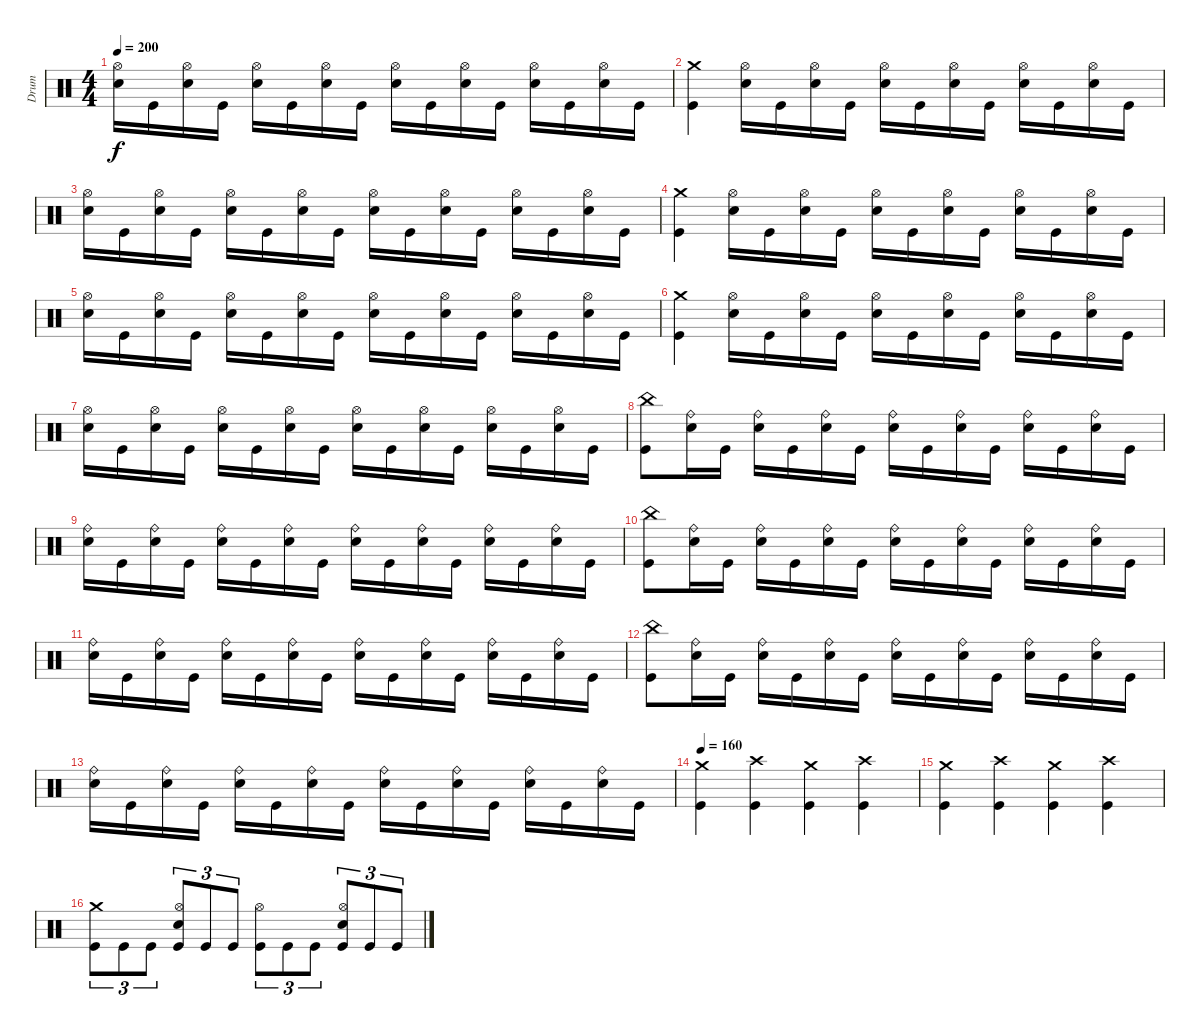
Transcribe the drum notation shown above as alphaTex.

\track ("Drum" "Drum") {instrument percussion}
\staff {score}
\articulation defaults
\ts (4 4)
\tempo 200
\clef neutral
\ks c
("Electric Snare (hit)" "Hi-Hat (open)").16{dy f} "Kick (hit)".16 ("Electric Snare (hit)" "Hi-Hat (open)").16 "Kick (hit)".16 ("Electric Snare (hit)" "Hi-Hat (open)").16 "Kick (hit)".16 ("Electric Snare (hit)" "Hi-Hat (open)").16 "Kick (hit)".16 ("Electric Snare (hit)" "Hi-Hat (open)").16 "Kick (hit)".16 ("Electric Snare (hit)" "Hi-Hat (open)").16 "Kick (hit)".16 ("Electric Snare (hit)" "Hi-Hat (open)").16 "Kick (hit)".16 ("Electric Snare (hit)" "Hi-Hat (open)").16 "Kick (hit)".16 |
("Kick (hit)" "Crash medium (hit)").4 ("Electric Snare (hit)" "Hi-Hat (open)").16 "Kick (hit)".16 ("Electric Snare (hit)" "Hi-Hat (open)").16 "Kick (hit)".16 ("Electric Snare (hit)" "Hi-Hat (open)").16 "Kick (hit)".16 ("Electric Snare (hit)" "Hi-Hat (open)").16 "Kick (hit)".16 ("Electric Snare (hit)" "Hi-Hat (open)").16 "Kick (hit)".16 ("Electric Snare (hit)" "Hi-Hat (open)").16 "Kick (hit)".16 |
("Electric Snare (hit)" "Hi-Hat (open)").16 "Kick (hit)".16 ("Electric Snare (hit)" "Hi-Hat (open)").16 "Kick (hit)".16 ("Electric Snare (hit)" "Hi-Hat (open)").16 "Kick (hit)".16 ("Electric Snare (hit)" "Hi-Hat (open)").16 "Kick (hit)".16 ("Electric Snare (hit)" "Hi-Hat (open)").16 "Kick (hit)".16 ("Electric Snare (hit)" "Hi-Hat (open)").16 "Kick (hit)".16 ("Electric Snare (hit)" "Hi-Hat (open)").16 "Kick (hit)".16 ("Electric Snare (hit)" "Hi-Hat (open)").16 "Kick (hit)".16 |
("Kick (hit)" "Crash medium (hit)").4 ("Electric Snare (hit)" "Hi-Hat (open)").16 "Kick (hit)".16 ("Electric Snare (hit)" "Hi-Hat (open)").16 "Kick (hit)".16 ("Electric Snare (hit)" "Hi-Hat (open)").16 "Kick (hit)".16 ("Electric Snare (hit)" "Hi-Hat (open)").16 "Kick (hit)".16 ("Electric Snare (hit)" "Hi-Hat (open)").16 "Kick (hit)".16 ("Electric Snare (hit)" "Hi-Hat (open)").16 "Kick (hit)".16 |
("Electric Snare (hit)" "Hi-Hat (open)").16 "Kick (hit)".16 ("Electric Snare (hit)" "Hi-Hat (open)").16 "Kick (hit)".16 ("Electric Snare (hit)" "Hi-Hat (open)").16 "Kick (hit)".16 ("Electric Snare (hit)" "Hi-Hat (open)").16 "Kick (hit)".16 ("Electric Snare (hit)" "Hi-Hat (open)").16 "Kick (hit)".16 ("Electric Snare (hit)" "Hi-Hat (open)").16 "Kick (hit)".16 ("Electric Snare (hit)" "Hi-Hat (open)").16 "Kick (hit)".16 ("Electric Snare (hit)" "Hi-Hat (open)").16 "Kick (hit)".16 |
("Kick (hit)" "Crash medium (hit)").4 ("Electric Snare (hit)" "Hi-Hat (open)").16 "Kick (hit)".16 ("Electric Snare (hit)" "Hi-Hat (open)").16 "Kick (hit)".16 ("Electric Snare (hit)" "Hi-Hat (open)").16 "Kick (hit)".16 ("Electric Snare (hit)" "Hi-Hat (open)").16 "Kick (hit)".16 ("Electric Snare (hit)" "Hi-Hat (open)").16 "Kick (hit)".16 ("Electric Snare (hit)" "Hi-Hat (open)").16 "Kick (hit)".16 |
("Electric Snare (hit)" "Hi-Hat (open)").16 "Kick (hit)".16 ("Electric Snare (hit)" "Hi-Hat (open)").16 "Kick (hit)".16 ("Electric Snare (hit)" "Hi-Hat (open)").16 "Kick (hit)".16 ("Electric Snare (hit)" "Hi-Hat (open)").16 "Kick (hit)".16 ("Electric Snare (hit)" "Hi-Hat (open)").16 "Kick (hit)".16 ("Electric Snare (hit)" "Hi-Hat (open)").16 "Kick (hit)".16 ("Electric Snare (hit)" "Hi-Hat (open)").16 "Kick (hit)".16 ("Electric Snare (hit)" "Hi-Hat (open)").16 "Kick (hit)".16 |
("Kick (hit)" "China (hit)").8 ("Electric Snare (hit)" "Ride (bell)").16 "Kick (hit)".16 ("Electric Snare (hit)" "Ride (bell)").16 "Kick (hit)".16 ("Electric Snare (hit)" "Ride (bell)").16 "Kick (hit)".16 ("Electric Snare (hit)" "Ride (bell)").16 "Kick (hit)".16 ("Electric Snare (hit)" "Ride (bell)").16 "Kick (hit)".16 ("Electric Snare (hit)" "Ride (bell)").16 "Kick (hit)".16 ("Electric Snare (hit)" "Ride (bell)").16 "Kick (hit)".16 |
("Electric Snare (hit)" "Ride (bell)").16 "Kick (hit)".16 ("Electric Snare (hit)" "Ride (bell)").16 "Kick (hit)".16 ("Electric Snare (hit)" "Ride (bell)").16 "Kick (hit)".16 ("Electric Snare (hit)" "Ride (bell)").16 "Kick (hit)".16 ("Electric Snare (hit)" "Ride (bell)").16 "Kick (hit)".16 ("Electric Snare (hit)" "Ride (bell)").16 "Kick (hit)".16 ("Electric Snare (hit)" "Ride (bell)").16 "Kick (hit)".16 ("Electric Snare (hit)" "Ride (bell)").16 "Kick (hit)".16 |
("Kick (hit)" "China (hit)").8 ("Electric Snare (hit)" "Ride (bell)").16 "Kick (hit)".16 ("Electric Snare (hit)" "Ride (bell)").16 "Kick (hit)".16 ("Electric Snare (hit)" "Ride (bell)").16 "Kick (hit)".16 ("Electric Snare (hit)" "Ride (bell)").16 "Kick (hit)".16 ("Electric Snare (hit)" "Ride (bell)").16 "Kick (hit)".16 ("Electric Snare (hit)" "Ride (bell)").16 "Kick (hit)".16 ("Electric Snare (hit)" "Ride (bell)").16 "Kick (hit)".16 |
("Electric Snare (hit)" "Ride (bell)").16 "Kick (hit)".16 ("Electric Snare (hit)" "Ride (bell)").16 "Kick (hit)".16 ("Electric Snare (hit)" "Ride (bell)").16 "Kick (hit)".16 ("Electric Snare (hit)" "Ride (bell)").16 "Kick (hit)".16 ("Electric Snare (hit)" "Ride (bell)").16 "Kick (hit)".16 ("Electric Snare (hit)" "Ride (bell)").16 "Kick (hit)".16 ("Electric Snare (hit)" "Ride (bell)").16 "Kick (hit)".16 ("Electric Snare (hit)" "Ride (bell)").16 "Kick (hit)".16 |
("Kick (hit)" "China (hit)").8 ("Electric Snare (hit)" "Ride (bell)").16 "Kick (hit)".16 ("Electric Snare (hit)" "Ride (bell)").16 "Kick (hit)".16 ("Electric Snare (hit)" "Ride (bell)").16 "Kick (hit)".16 ("Electric Snare (hit)" "Ride (bell)").16 "Kick (hit)".16 ("Electric Snare (hit)" "Ride (bell)").16 "Kick (hit)".16 ("Electric Snare (hit)" "Ride (bell)").16 "Kick (hit)".16 ("Electric Snare (hit)" "Ride (bell)").16 "Kick (hit)".16 |
("Electric Snare (hit)" "Ride (bell)").16 "Kick (hit)".16 ("Electric Snare (hit)" "Ride (bell)").16 "Kick (hit)".16 ("Electric Snare (hit)" "Ride (bell)").16 "Kick (hit)".16 ("Electric Snare (hit)" "Ride (bell)").16 "Kick (hit)".16 ("Electric Snare (hit)" "Ride (bell)").16 "Kick (hit)".16 ("Electric Snare (hit)" "Ride (bell)").16 "Kick (hit)".16 ("Electric Snare (hit)" "Ride (bell)").16 "Kick (hit)".16 ("Electric Snare (hit)" "Ride (bell)").16 "Kick (hit)".16 |
\tempo 160
("Kick (hit)" "Crash medium (hit)").4 ("Kick (hit)" "Crash high (hit)").4 ("Kick (hit)" "Crash medium (hit)").4 ("Kick (hit)" "Crash high (hit)").4 |
("Kick (hit)" "Crash medium (hit)").4 ("Kick (hit)" "Crash high (hit)").4 ("Kick (hit)" "Crash medium (hit)").4 ("Kick (hit)" "Crash high (hit)").4 |
("Kick (hit)" "Crash medium (hit)").8{tu (3 2)} "Kick (hit)".8{tu (3 2)} "Kick (hit)".8{tu (3 2)} ("Kick (hit)" "Electric Snare (hit)" "Hi-Hat (open)").8{tu (3 2)} "Kick (hit)".8{tu (3 2)} "Kick (hit)".8{tu (3 2)} ("Kick (hit)" "Hi-Hat (open)").8{tu (3 2)} "Kick (hit)".8{tu (3 2)} "Kick (hit)".8{tu (3 2)} ("Kick (hit)" "Electric Snare (hit)" "Hi-Hat (open)").8{tu (3 2)} "Kick (hit)".8{tu (3 2)} "Kick (hit)".8{tu (3 2)}
